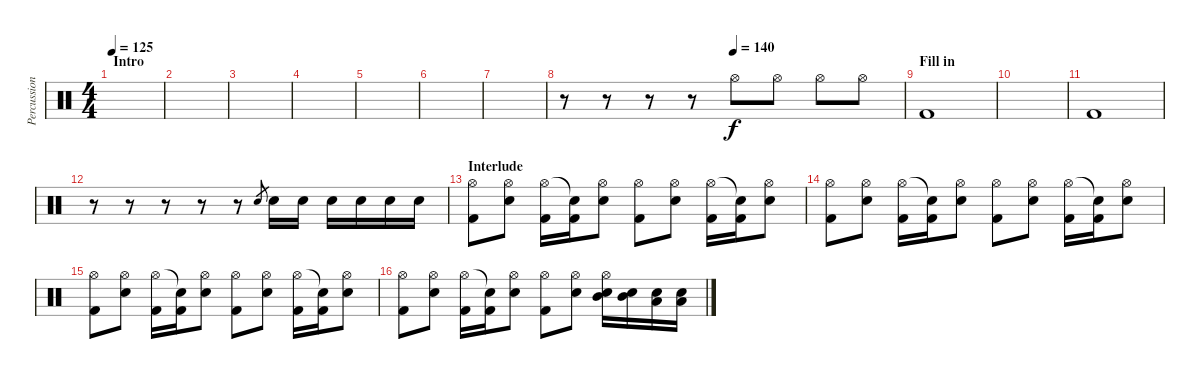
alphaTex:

\track ("Percussion" "Percussion") {instrument percussion}
\staff {score}
\articulation defaults
\ts (4 4)
\section ("" "Intro")
\tempo 125
\clef neutral
\ks c
|
|
|
|
|
|
|
\tempo (140 0.5)
r.8 r.8 r.8 r.8 "Hi-Hat (open)".8 "Hi-Hat (open)".8 "Hi-Hat (open)".8 "Hi-Hat (open)".8 |
\section ("" "Fill in")
"Kick (hit) 2".1 |
|
"Kick (hit) 2".1 |
r.8 r.8 r.8 r.8 r.8 "Electric Snare (hit)".8{gr} "Electric Snare (hit)".16 "Electric Snare (hit)".16 "Electric Snare (hit)".16 "Electric Snare (hit)".16 "Electric Snare (hit)".16 "Electric Snare (hit)".16 |
\section ("" "Interlude")
("Hi-Hat (open)" "Kick (hit) 2").8 ("Hi-Hat (open)" "Electric Snare (hit)").8 ("Hi-Hat (open)" "Kick (hit) 2").16 ("Snare (hit)"{t} "Kick (hit) 2").16 ("Hi-Hat (open)" "Electric Snare (hit)").8 ("Hi-Hat (open)" "Kick (hit) 2").8 ("Hi-Hat (open)" "Electric Snare (hit)").8 ("Hi-Hat (open)" "Kick (hit) 2").16 ("Snare (hit)"{t} "Kick (hit) 2").16 ("Hi-Hat (open)" "Electric Snare (hit)").8 |
("Hi-Hat (open)" "Kick (hit) 2").8 ("Hi-Hat (open)" "Electric Snare (hit)").8 ("Hi-Hat (open)" "Kick (hit) 2").16 ("Snare (hit)"{t} "Kick (hit) 2").16 ("Hi-Hat (open)" "Electric Snare (hit)").8 ("Hi-Hat (open)" "Kick (hit) 2").8 ("Hi-Hat (open)" "Electric Snare (hit)").8 ("Hi-Hat (open)" "Kick (hit) 2").16 ("Snare (hit)"{t} "Kick (hit) 2").16 ("Hi-Hat (open)" "Electric Snare (hit)").8 |
("Hi-Hat (open)" "Kick (hit) 2").8 ("Hi-Hat (open)" "Electric Snare (hit)").8 ("Hi-Hat (open)" "Kick (hit) 2").16 ("Snare (hit)"{t} "Kick (hit) 2").16 ("Hi-Hat (open)" "Electric Snare (hit)").8 ("Hi-Hat (open)" "Kick (hit) 2").8 ("Hi-Hat (open)" "Electric Snare (hit)").8 ("Hi-Hat (open)" "Kick (hit) 2").16 ("Snare (hit)"{t} "Kick (hit) 2").16 ("Hi-Hat (open)" "Electric Snare (hit)").8 |
("Hi-Hat (open)" "Kick (hit) 2").8 ("Hi-Hat (open)" "Electric Snare (hit)").8 ("Hi-Hat (open)" "Kick (hit) 2").16 ("Snare (hit)"{t} "Kick (hit) 2").16 ("Hi-Hat (open)" "Electric Snare (hit)").8 ("Hi-Hat (open)" "Kick (hit) 2").8 ("Hi-Hat (open)" "Electric Snare (hit)").8 ("Hi-Hat (open)" "Electric Snare (hit)" "Mid Tom (hit)").16 ("Electric Snare (hit)" "Mid Tom (hit)").16 ("Electric Snare (hit)" "Low Tom (hit)").16 ("Electric Snare (hit)" "Low Tom (hit)").16
